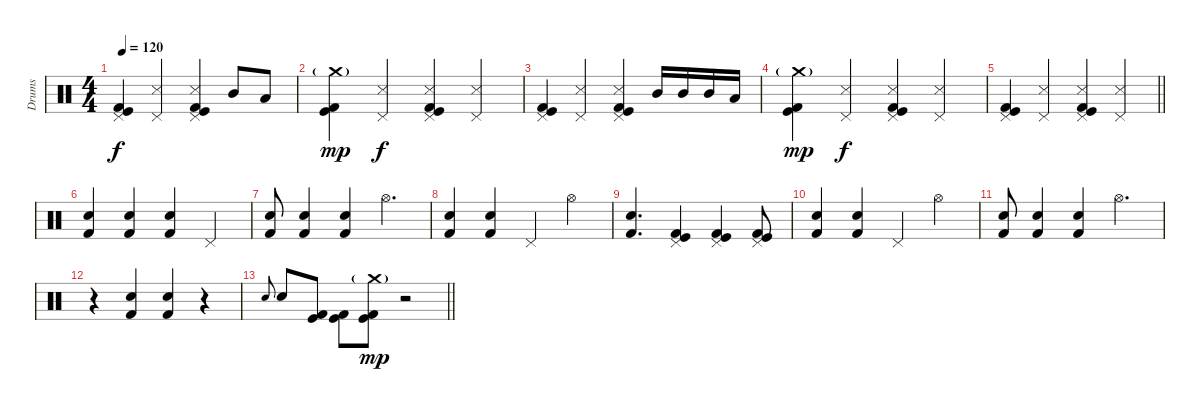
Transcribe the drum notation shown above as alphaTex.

\track ("Drums" "Drums") {instrument percussion}
\staff {score}
\articulation defaults
\ts (4 4)
\tempo 120
\clef neutral
\ks c
("Pedal Hi-Hat (hit)" "Kick (hit)" "Kick (hit) 2").4{dy f} ("Pedal Hi-Hat (hit)" "Snare (side stick) 3").4 ("Pedal Hi-Hat (hit)" "Snare (side stick) 3" "Kick (hit)" "Kick (hit) 2").4 "Mid Tom (hit)".8 "Low Tom (hit)".8 |
("Crash medium (hit)"{g} "Kick (hit)" "Kick (hit) 2").4{dy mp} ("Pedal Hi-Hat (hit)" "Snare (side stick) 3").4{dy f} ("Pedal Hi-Hat (hit)" "Snare (side stick) 3" "Kick (hit)" "Kick (hit) 2").4 ("Pedal Hi-Hat (hit)" "Snare (side stick) 3").4 |
("Pedal Hi-Hat (hit)" "Kick (hit)" "Kick (hit) 2").4 ("Pedal Hi-Hat (hit)" "Snare (side stick) 3").4 ("Pedal Hi-Hat (hit)" "Snare (side stick) 3" "Kick (hit)" "Kick (hit) 2").4 "Mid Tom (hit)".16 "Mid Tom (hit)".16 "Mid Tom (hit)".16 "Low Tom (hit)".16 |
("Crash medium (hit)"{g} "Kick (hit)" "Kick (hit) 2").4{dy mp} ("Pedal Hi-Hat (hit)" "Snare (side stick) 3").4{dy f} ("Pedal Hi-Hat (hit)" "Snare (side stick) 3" "Kick (hit)" "Kick (hit) 2").4 ("Pedal Hi-Hat (hit)" "Snare (side stick) 3").4 |
\barLineRight lightlight
("Pedal Hi-Hat (hit)" "Kick (hit)" "Kick (hit) 2").4 ("Pedal Hi-Hat (hit)" "Snare (side stick) 3").4 ("Pedal Hi-Hat (hit)" "Snare (side stick) 3" "Kick (hit)" "Kick (hit) 2").4 ("Pedal Hi-Hat (hit)" "Snare (side stick) 3").4 |
\section ("" "")
("Electric Snare (hit)" "Kick (hit) 2").4 ("Electric Snare (hit)" "Kick (hit) 2").4 ("Electric Snare (hit)" "Kick (hit) 2").4 "Pedal Hi-Hat (hit)".4 |
("Electric Snare (hit)" "Kick (hit) 2").8 ("Electric Snare (hit)" "Kick (hit) 2").4 ("Electric Snare (hit)" "Kick (hit) 2").4 "Hi-Hat (open)".4{d} |
("Electric Snare (hit)" "Kick (hit) 2").4 ("Electric Snare (hit)" "Kick (hit) 2").4 "Pedal Hi-Hat (hit)".4 "Hi-Hat (open)".4 |
("Electric Snare (hit)" "Kick (hit) 2").4{d} ("Pedal Hi-Hat (hit)" "Kick (hit)" "Kick (hit) 2").4 ("Pedal Hi-Hat (hit)" "Kick (hit)" "Kick (hit) 2").4 ("Pedal Hi-Hat (hit)" "Kick (hit)" "Kick (hit) 2").8 |
("Electric Snare (hit)" "Kick (hit) 2").4 ("Electric Snare (hit)" "Kick (hit) 2").4 "Pedal Hi-Hat (hit)".4 "Hi-Hat (open)".4 |
("Electric Snare (hit)" "Kick (hit) 2").8 ("Electric Snare (hit)" "Kick (hit) 2").4 ("Electric Snare (hit)" "Kick (hit) 2").4 "Hi-Hat (open)".4{d} |
r.4 ("Electric Snare (hit)" "Kick (hit) 2").4 ("Electric Snare (hit)" "Kick (hit) 2").4 r.4 |
\barLineRight lightlight "Electric Snare (hit)".8{gr onbeat} "Electric Snare (hit)".8
("Kick (hit)" "Kick (hit) 2").8 ("Kick (hit)" "Kick (hit) 2").8 ("Crash medium (hit)"{g} "Kick (hit)" "Kick (hit) 2").8{dy mp} r.2
